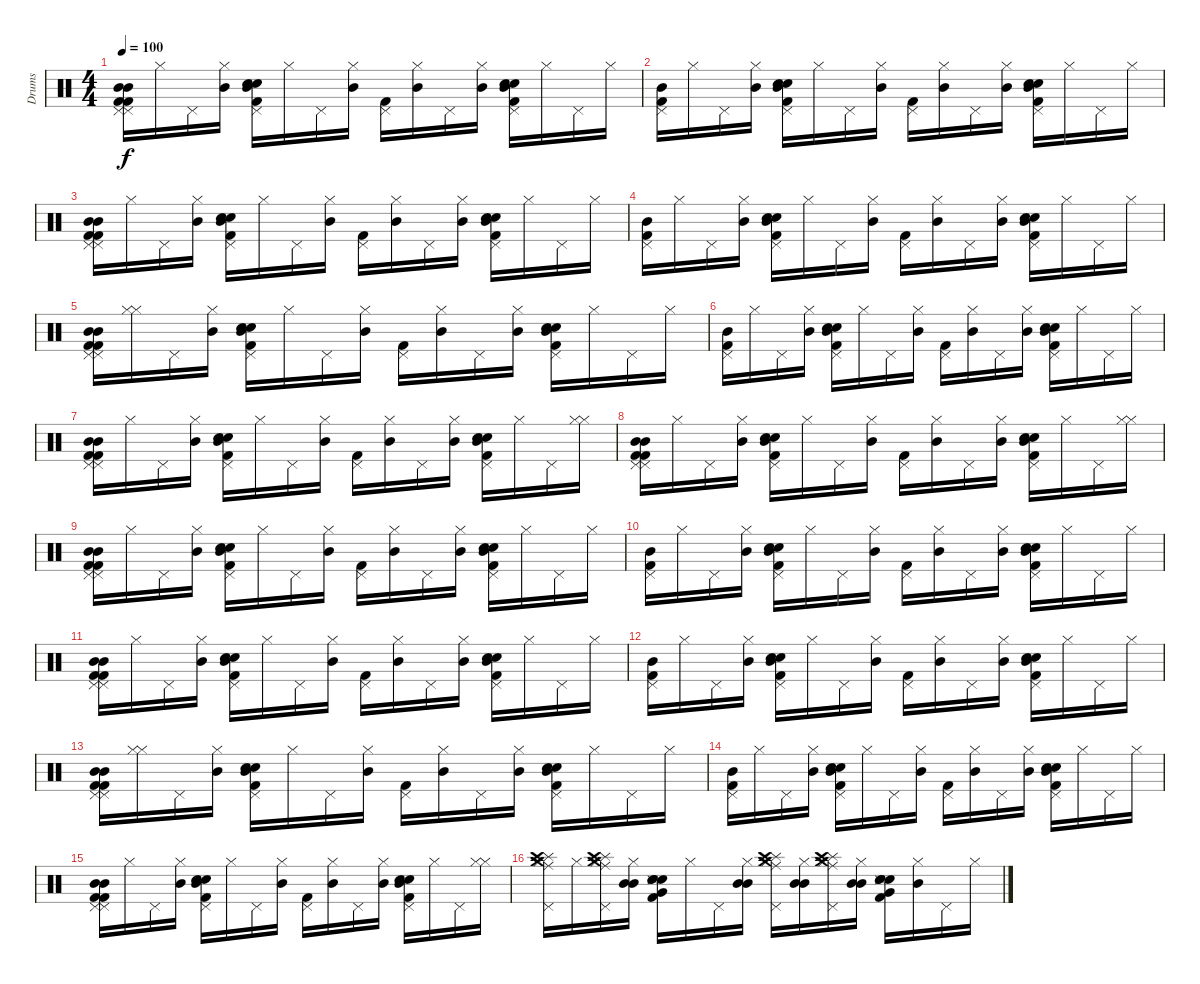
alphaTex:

\track ("Drums" "Drums") {instrument percussion}
\staff {score}
\articulation defaults
\ts (4 4)
\tempo 100
\clef neutral
\ks c
("Kick (hit) 2" "Mid Tom (hit)" "Pedal Hi-Hat (hit)" "Kick (hit) 2" "Mid Tom (hit)" "Pedal Hi-Hat (hit)").16{dy f} "Hi-Hat (closed)".16 "Pedal Hi-Hat (hit)".16 ("Hi-Hat (closed)" "Mid Tom (hit)").16 ("Pedal Hi-Hat (hit)" "Electric Snare (hit)" "Snare (hit) 2" "Kick (hit) 2" "Mid Tom (hit)").16 "Hi-Hat (closed)".16 "Pedal Hi-Hat (hit)".16 ("Hi-Hat (closed)" "Mid Tom (hit)").16 ("Pedal Hi-Hat (hit)" "Kick (hit) 2").16 ("Hi-Hat (closed)" "Mid Tom (hit)").16 "Pedal Hi-Hat (hit)".16 ("Hi-Hat (closed)" "Mid Tom (hit)").16 ("Pedal Hi-Hat (hit)" "Snare (hit) 2" "Electric Snare (hit)" "Kick (hit) 2" "Mid Tom (hit)").16 "Hi-Hat (closed)".16 "Pedal Hi-Hat (hit)".16 "Hi-Hat (closed)".16 |
("Pedal Hi-Hat (hit)" "Kick (hit) 2" "Mid Tom (hit)").16 "Hi-Hat (closed)".16 "Pedal Hi-Hat (hit)".16 ("Hi-Hat (closed)" "Mid Tom (hit)").16 ("Pedal Hi-Hat (hit)" "Snare (hit) 2" "Electric Snare (hit)" "Kick (hit) 2" "Mid Tom (hit)").16 "Hi-Hat (closed)".16 "Pedal Hi-Hat (hit)".16 ("Hi-Hat (closed)" "Mid Tom (hit)").16 ("Pedal Hi-Hat (hit)" "Kick (hit) 2").16 ("Hi-Hat (closed)" "Mid Tom (hit)").16 "Pedal Hi-Hat (hit)".16 ("Hi-Hat (closed)" "Mid Tom (hit)").16 ("Pedal Hi-Hat (hit)" "Snare (hit) 2" "Electric Snare (hit)" "Kick (hit) 2" "Mid Tom (hit)").16 "Hi-Hat (closed)".16 "Pedal Hi-Hat (hit)".16 "Hi-Hat (closed)".16 |
("Pedal Hi-Hat (hit)" "Kick (hit) 2" "Mid Tom (hit)" "Pedal Hi-Hat (hit)" "Kick (hit) 2" "Mid Tom (hit)").16 "Hi-Hat (closed)".16 "Pedal Hi-Hat (hit)".16 ("Hi-Hat (closed)" "Mid Tom (hit)").16 ("Pedal Hi-Hat (hit)" "Electric Snare (hit)" "Snare (hit) 2" "Kick (hit) 2" "Mid Tom (hit)").16 "Hi-Hat (closed)".16 "Pedal Hi-Hat (hit)".16 ("Hi-Hat (closed)" "Mid Tom (hit)").16 ("Pedal Hi-Hat (hit)" "Kick (hit) 2").16 ("Hi-Hat (closed)" "Mid Tom (hit)").16 "Pedal Hi-Hat (hit)".16 ("Hi-Hat (closed)" "Mid Tom (hit)").16 ("Pedal Hi-Hat (hit)" "Snare (hit) 2" "Electric Snare (hit)" "Kick (hit) 2" "Mid Tom (hit)").16 "Hi-Hat (closed)".16 "Pedal Hi-Hat (hit)".16 "Hi-Hat (closed)".16 |
("Pedal Hi-Hat (hit)" "Kick (hit) 2" "Mid Tom (hit)").16 "Hi-Hat (closed)".16 "Pedal Hi-Hat (hit)".16 ("Hi-Hat (closed)" "Mid Tom (hit)").16 ("Pedal Hi-Hat (hit)" "Snare (hit) 2" "Electric Snare (hit)" "Kick (hit) 2" "Mid Tom (hit)").16 "Hi-Hat (closed)".16 "Pedal Hi-Hat (hit)".16 ("Hi-Hat (closed)" "Mid Tom (hit)").16 ("Pedal Hi-Hat (hit)" "Kick (hit) 2").16 ("Hi-Hat (closed)" "Mid Tom (hit)").16 "Pedal Hi-Hat (hit)".16 ("Hi-Hat (closed)" "Mid Tom (hit)").16 ("Pedal Hi-Hat (hit)" "Snare (hit) 2" "Electric Snare (hit)" "Kick (hit) 2" "Mid Tom (hit)").16 "Hi-Hat (closed)".16 "Pedal Hi-Hat (hit)".16 "Hi-Hat (closed)".16 |
("Pedal Hi-Hat (hit)" "Kick (hit) 2" "Mid Tom (hit)" "Pedal Hi-Hat (hit)" "Kick (hit) 2" "Mid Tom (hit)").16 ("Hi-Hat (closed)" "Hi-Hat (closed)").16 "Pedal Hi-Hat (hit)".16 ("Hi-Hat (closed)" "Mid Tom (hit)").16 ("Pedal Hi-Hat (hit)" "Electric Snare (hit)" "Snare (hit) 2" "Kick (hit) 2" "Mid Tom (hit)").16 "Hi-Hat (closed)".16 "Pedal Hi-Hat (hit)".16 ("Hi-Hat (closed)" "Mid Tom (hit)").16 ("Pedal Hi-Hat (hit)" "Kick (hit) 2").16 ("Hi-Hat (closed)" "Mid Tom (hit)").16 "Pedal Hi-Hat (hit)".16 ("Hi-Hat (closed)" "Mid Tom (hit)").16 ("Pedal Hi-Hat (hit)" "Snare (hit) 2" "Electric Snare (hit)" "Kick (hit) 2" "Mid Tom (hit)").16 "Hi-Hat (closed)".16 "Pedal Hi-Hat (hit)".16 "Hi-Hat (closed)".16 |
("Pedal Hi-Hat (hit)" "Kick (hit) 2" "Mid Tom (hit)").16 "Hi-Hat (closed)".16 "Pedal Hi-Hat (hit)".16 ("Hi-Hat (closed)" "Mid Tom (hit)").16 ("Pedal Hi-Hat (hit)" "Snare (hit) 2" "Electric Snare (hit)" "Kick (hit) 2" "Mid Tom (hit)").16 "Hi-Hat (closed)".16 "Pedal Hi-Hat (hit)".16 ("Hi-Hat (closed)" "Mid Tom (hit)").16 ("Pedal Hi-Hat (hit)" "Kick (hit) 2").16 ("Hi-Hat (closed)" "Mid Tom (hit)").16 "Pedal Hi-Hat (hit)".16 ("Hi-Hat (closed)" "Mid Tom (hit)").16 ("Pedal Hi-Hat (hit)" "Snare (hit) 2" "Electric Snare (hit)" "Kick (hit) 2" "Mid Tom (hit)").16 "Hi-Hat (closed)".16 "Pedal Hi-Hat (hit)".16 "Hi-Hat (closed)".16 |
("Pedal Hi-Hat (hit)" "Kick (hit) 2" "Mid Tom (hit)" "Pedal Hi-Hat (hit)" "Kick (hit) 2" "Mid Tom (hit)").16 "Hi-Hat (closed)".16 "Pedal Hi-Hat (hit)".16 ("Hi-Hat (closed)" "Mid Tom (hit)").16 ("Pedal Hi-Hat (hit)" "Electric Snare (hit)" "Snare (hit) 2" "Kick (hit) 2" "Mid Tom (hit)").16 "Hi-Hat (closed)".16 "Pedal Hi-Hat (hit)".16 ("Hi-Hat (closed)" "Mid Tom (hit)").16 ("Pedal Hi-Hat (hit)" "Kick (hit) 2").16 ("Hi-Hat (closed)" "Mid Tom (hit)").16 "Pedal Hi-Hat (hit)".16 ("Hi-Hat (closed)" "Mid Tom (hit)").16 ("Pedal Hi-Hat (hit)" "Snare (hit) 2" "Electric Snare (hit)" "Kick (hit) 2" "Mid Tom (hit)").16 "Hi-Hat (closed)".16 "Pedal Hi-Hat (hit)".16 ("Hi-Hat (closed)" "Hi-Hat (closed)").16 |
("Pedal Hi-Hat (hit)" "Kick (hit) 2" "Mid Tom (hit)" "Pedal Hi-Hat (hit)" "Kick (hit) 2" "Mid Tom (hit)").16 "Hi-Hat (closed)".16 "Pedal Hi-Hat (hit)".16 ("Hi-Hat (closed)" "Mid Tom (hit)").16 ("Pedal Hi-Hat (hit)" "Electric Snare (hit)" "Snare (hit) 2" "Kick (hit) 2" "Mid Tom (hit)").16 "Hi-Hat (closed)".16 "Pedal Hi-Hat (hit)".16 ("Hi-Hat (closed)" "Mid Tom (hit)").16 ("Pedal Hi-Hat (hit)" "Kick (hit) 2").16 ("Hi-Hat (closed)" "Mid Tom (hit)").16 "Pedal Hi-Hat (hit)".16 ("Hi-Hat (closed)" "Mid Tom (hit)").16 ("Pedal Hi-Hat (hit)" "Snare (hit) 2" "Electric Snare (hit)" "Kick (hit) 2" "Mid Tom (hit)").16 "Hi-Hat (closed)".16 "Pedal Hi-Hat (hit)".16 ("Hi-Hat (closed)" "Hi-Hat (closed)").16 |
("Pedal Hi-Hat (hit)" "Kick (hit) 2" "Mid Tom (hit)" "Pedal Hi-Hat (hit)" "Kick (hit) 2" "Mid Tom (hit)").16 "Hi-Hat (closed)".16 "Pedal Hi-Hat (hit)".16 ("Hi-Hat (closed)" "Mid Tom (hit)").16 ("Pedal Hi-Hat (hit)" "Electric Snare (hit)" "Snare (hit) 2" "Kick (hit) 2" "Mid Tom (hit)").16 "Hi-Hat (closed)".16 "Pedal Hi-Hat (hit)".16 ("Hi-Hat (closed)" "Mid Tom (hit)").16 ("Pedal Hi-Hat (hit)" "Kick (hit) 2").16 ("Hi-Hat (closed)" "Mid Tom (hit)").16 "Pedal Hi-Hat (hit)".16 ("Hi-Hat (closed)" "Mid Tom (hit)").16 ("Pedal Hi-Hat (hit)" "Snare (hit) 2" "Electric Snare (hit)" "Kick (hit) 2" "Mid Tom (hit)").16 "Hi-Hat (closed)".16 "Pedal Hi-Hat (hit)".16 "Hi-Hat (closed)".16 |
("Pedal Hi-Hat (hit)" "Kick (hit) 2" "Mid Tom (hit)").16 "Hi-Hat (closed)".16 "Pedal Hi-Hat (hit)".16 ("Hi-Hat (closed)" "Mid Tom (hit)").16 ("Pedal Hi-Hat (hit)" "Snare (hit) 2" "Electric Snare (hit)" "Kick (hit) 2" "Mid Tom (hit)").16 "Hi-Hat (closed)".16 "Pedal Hi-Hat (hit)".16 ("Hi-Hat (closed)" "Mid Tom (hit)").16 ("Pedal Hi-Hat (hit)" "Kick (hit) 2").16 ("Hi-Hat (closed)" "Mid Tom (hit)").16 "Pedal Hi-Hat (hit)".16 ("Hi-Hat (closed)" "Mid Tom (hit)").16 ("Pedal Hi-Hat (hit)" "Snare (hit) 2" "Electric Snare (hit)" "Kick (hit) 2" "Mid Tom (hit)").16 "Hi-Hat (closed)".16 "Pedal Hi-Hat (hit)".16 "Hi-Hat (closed)".16 |
("Pedal Hi-Hat (hit)" "Kick (hit) 2" "Mid Tom (hit)" "Pedal Hi-Hat (hit)" "Kick (hit) 2" "Mid Tom (hit)").16 "Hi-Hat (closed)".16 "Pedal Hi-Hat (hit)".16 ("Hi-Hat (closed)" "Mid Tom (hit)").16 ("Pedal Hi-Hat (hit)" "Electric Snare (hit)" "Snare (hit) 2" "Kick (hit) 2" "Mid Tom (hit)").16 "Hi-Hat (closed)".16 "Pedal Hi-Hat (hit)".16 ("Hi-Hat (closed)" "Mid Tom (hit)").16 ("Pedal Hi-Hat (hit)" "Kick (hit) 2").16 ("Hi-Hat (closed)" "Mid Tom (hit)").16 "Pedal Hi-Hat (hit)".16 ("Hi-Hat (closed)" "Mid Tom (hit)").16 ("Pedal Hi-Hat (hit)" "Snare (hit) 2" "Electric Snare (hit)" "Kick (hit) 2" "Mid Tom (hit)").16 "Hi-Hat (closed)".16 "Pedal Hi-Hat (hit)".16 "Hi-Hat (closed)".16 |
("Pedal Hi-Hat (hit)" "Kick (hit) 2" "Mid Tom (hit)").16 "Hi-Hat (closed)".16 "Pedal Hi-Hat (hit)".16 ("Hi-Hat (closed)" "Mid Tom (hit)").16 ("Pedal Hi-Hat (hit)" "Snare (hit) 2" "Electric Snare (hit)" "Kick (hit) 2" "Mid Tom (hit)").16 "Hi-Hat (closed)".16 "Pedal Hi-Hat (hit)".16 ("Hi-Hat (closed)" "Mid Tom (hit)").16 ("Pedal Hi-Hat (hit)" "Kick (hit) 2").16 ("Hi-Hat (closed)" "Mid Tom (hit)").16 "Pedal Hi-Hat (hit)".16 ("Hi-Hat (closed)" "Mid Tom (hit)").16 ("Pedal Hi-Hat (hit)" "Snare (hit) 2" "Electric Snare (hit)" "Kick (hit) 2" "Mid Tom (hit)").16 "Hi-Hat (closed)".16 "Pedal Hi-Hat (hit)".16 "Hi-Hat (closed)".16 |
("Pedal Hi-Hat (hit)" "Kick (hit) 2" "Mid Tom (hit)" "Pedal Hi-Hat (hit)" "Kick (hit) 2" "Mid Tom (hit)").16 ("Hi-Hat (closed)" "Hi-Hat (closed)").16 "Pedal Hi-Hat (hit)".16 ("Hi-Hat (closed)" "Mid Tom (hit)").16 ("Pedal Hi-Hat (hit)" "Electric Snare (hit)" "Snare (hit) 2" "Kick (hit) 2" "Mid Tom (hit)").16 "Hi-Hat (closed)".16 "Pedal Hi-Hat (hit)".16 ("Hi-Hat (closed)" "Mid Tom (hit)").16 ("Pedal Hi-Hat (hit)" "Kick (hit) 2").16 ("Hi-Hat (closed)" "Mid Tom (hit)").16 "Pedal Hi-Hat (hit)".16 ("Hi-Hat (closed)" "Mid Tom (hit)").16 ("Pedal Hi-Hat (hit)" "Snare (hit) 2" "Electric Snare (hit)" "Kick (hit) 2" "Mid Tom (hit)").16 "Hi-Hat (closed)".16 "Pedal Hi-Hat (hit)".16 "Hi-Hat (closed)".16 |
("Pedal Hi-Hat (hit)" "Kick (hit) 2" "Mid Tom (hit)").16 "Hi-Hat (closed)".16 "Pedal Hi-Hat (hit)".16 ("Hi-Hat (closed)" "Mid Tom (hit)").16 ("Pedal Hi-Hat (hit)" "Snare (hit) 2" "Electric Snare (hit)" "Kick (hit) 2" "Mid Tom (hit)").16 "Hi-Hat (closed)".16 "Pedal Hi-Hat (hit)".16 ("Hi-Hat (closed)" "Mid Tom (hit)").16 ("Pedal Hi-Hat (hit)" "Kick (hit) 2").16 ("Hi-Hat (closed)" "Mid Tom (hit)").16 "Pedal Hi-Hat (hit)".16 ("Hi-Hat (closed)" "Mid Tom (hit)").16 ("Pedal Hi-Hat (hit)" "Snare (hit) 2" "Electric Snare (hit)" "Kick (hit) 2" "Mid Tom (hit)").16 "Hi-Hat (closed)".16 "Pedal Hi-Hat (hit)".16 "Hi-Hat (closed)".16 |
("Pedal Hi-Hat (hit)" "Kick (hit) 2" "Mid Tom (hit)" "Pedal Hi-Hat (hit)" "Kick (hit) 2" "Mid Tom (hit)").16 "Hi-Hat (closed)".16 "Pedal Hi-Hat (hit)".16 ("Hi-Hat (closed)" "Mid Tom (hit)").16 ("Pedal Hi-Hat (hit)" "Electric Snare (hit)" "Snare (hit) 2" "Kick (hit) 2" "Mid Tom (hit)").16 "Hi-Hat (closed)".16 "Pedal Hi-Hat (hit)".16 ("Hi-Hat (closed)" "Mid Tom (hit)").16 ("Pedal Hi-Hat (hit)" "Kick (hit) 2").16 ("Hi-Hat (closed)" "Mid Tom (hit)").16 "Pedal Hi-Hat (hit)".16 ("Hi-Hat (closed)" "Mid Tom (hit)").16 ("Pedal Hi-Hat (hit)" "Snare (hit) 2" "Electric Snare (hit)" "Kick (hit) 2" "Mid Tom (hit)").16 "Hi-Hat (closed)".16 "Pedal Hi-Hat (hit)".16 ("Hi-Hat (closed)" "Hi-Hat (closed)").16 |
("Pedal Hi-Hat (hit)" "Hi-Hat (closed)" "Ride (middle)" "Splash (hit)" "Crash high (hit)" "Crash medium (hit)").16 "Hi-Hat (closed)".16 ("Hi-Hat (closed)" "Pedal Hi-Hat (hit)" "Ride (middle)" "Splash (hit)" "Crash high (hit)" "Crash medium (hit)").16 ("Mid Tom (hit)" "Hi-Hat (closed)" "Mid Tom (hit)").16 ("Snare (hit) 2" "Kick (hit) 2" "Electric Snare (hit)" "Hand Clap (hit)" "Snare (side stick) 3" "Very Low Tom (hit)").16 "Hi-Hat (closed)".16 "Pedal Hi-Hat (hit)".16 ("Mid Tom (hit)" "Hi-Hat (closed)" "Mid Tom (hit)").16 ("Hi-Hat (closed)" "Pedal Hi-Hat (hit)" "Ride (middle)" "Splash (hit)" "Crash high (hit)" "Crash medium (hit)").16 ("Mid Tom (hit)" "Hi-Hat (closed)" "Mid Tom (hit)").16 ("Hi-Hat (closed)" "Pedal Hi-Hat (hit)" "Ride (middle)" "Splash (hit)" "Crash high (hit)" "Crash medium (hit)").16 ("Mid Tom (hit)" "Hi-Hat (closed)" "Mid Tom (hit)").16 ("Kick (hit) 2" "Snare (hit) 2" "Electric Snare (hit)" "Hand Clap (hit)" "Snare (side stick) 3" "Very Low Tom (hit)").16 ("Mid Tom (hit)" "Hi-Hat (closed)").16 "Pedal Hi-Hat (hit)".16 "Hi-Hat (closed)".16
